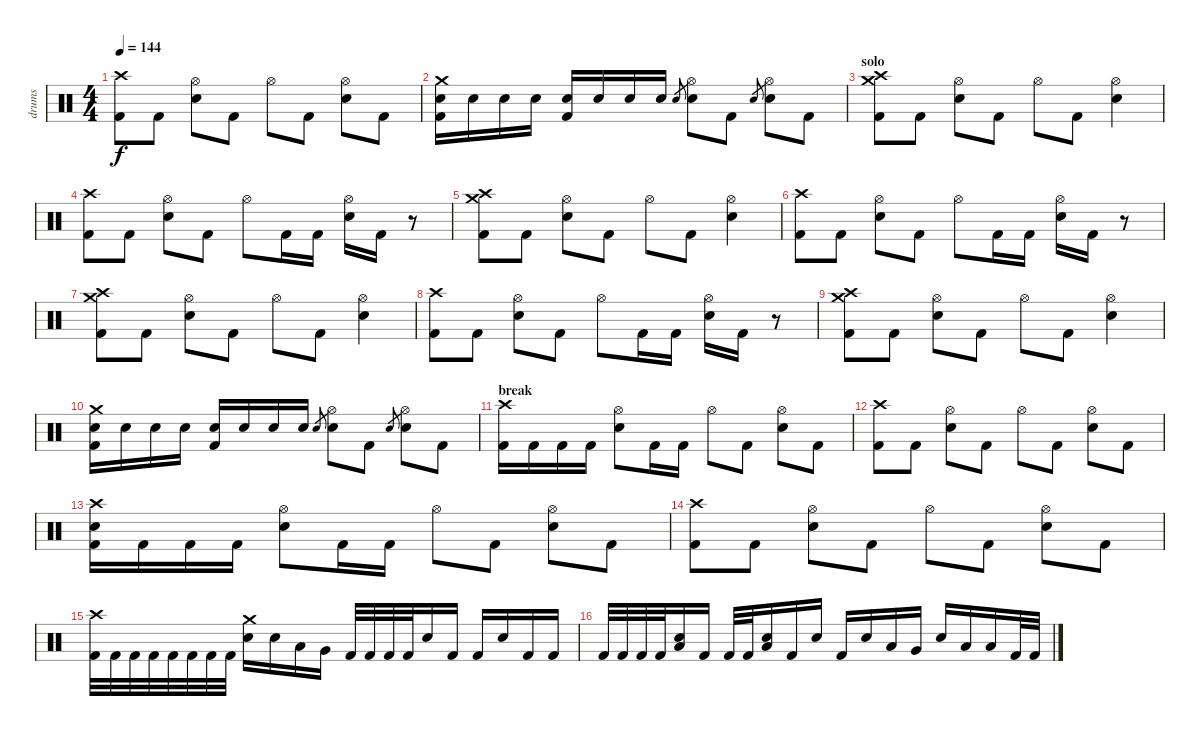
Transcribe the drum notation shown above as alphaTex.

\track ("drums" "drums") {instrument percussion}
\staff {score}
\articulation defaults
\ts (4 4)
\tempo 144
\clef neutral
\ks c
("Crash high (hit)" "Kick (hit) 2").8{dy f} "Kick (hit) 2".8 ("Hi-Hat (open)" "Electric Snare (hit)").8 "Kick (hit) 2".8 "Hi-Hat (open)".8 "Kick (hit) 2".8 ("Hi-Hat (open)" "Electric Snare (hit)").8 "Kick (hit) 2".8 |
("Crash medium (hit)" "Electric Snare (hit)" "Kick (hit) 2").16 "Electric Snare (hit)".16 "Electric Snare (hit)".16 "Electric Snare (hit)".16 ("Electric Snare (hit)" "Kick (hit) 2").16 "Electric Snare (hit)".16 "Electric Snare (hit)".16 "Electric Snare (hit)".16 "Electric Snare (hit)".8{gr} ("Hi-Hat (open)" "Electric Snare (hit)").8 "Kick (hit) 2".8 "Electric Snare (hit)".8{gr} ("Hi-Hat (open)" "Electric Snare (hit)").8 "Kick (hit) 2".8 |
\section ("" "solo")
("Crash high (hit)" "Crash medium (hit)" "Kick (hit) 2").8 "Kick (hit) 2".8 ("Hi-Hat (open)" "Electric Snare (hit)").8 "Kick (hit) 2".8 "Hi-Hat (open)".8 "Kick (hit) 2".8 ("Hi-Hat (open)" "Electric Snare (hit)").4 |
("Crash high (hit)" "Kick (hit) 2").8 "Kick (hit) 2".8 ("Hi-Hat (open)" "Electric Snare (hit)").8 "Kick (hit) 2".8 "Hi-Hat (open)".8 "Kick (hit) 2".16 "Kick (hit) 2".16 ("Hi-Hat (open)" "Electric Snare (hit)").16 "Kick (hit) 2".16 r.8 |
("Crash high (hit)" "Crash medium (hit)" "Kick (hit) 2").8 "Kick (hit) 2".8 ("Hi-Hat (open)" "Electric Snare (hit)").8 "Kick (hit) 2".8 "Hi-Hat (open)".8 "Kick (hit) 2".8 ("Hi-Hat (open)" "Electric Snare (hit)").4 |
("Crash high (hit)" "Kick (hit) 2").8 "Kick (hit) 2".8 ("Hi-Hat (open)" "Electric Snare (hit)").8 "Kick (hit) 2".8 "Hi-Hat (open)".8 "Kick (hit) 2".16 "Kick (hit) 2".16 ("Hi-Hat (open)" "Electric Snare (hit)").16 "Kick (hit) 2".16 r.8 |
("Crash high (hit)" "Crash medium (hit)" "Kick (hit) 2").8 "Kick (hit) 2".8 ("Hi-Hat (open)" "Electric Snare (hit)").8 "Kick (hit) 2".8 "Hi-Hat (open)".8 "Kick (hit) 2".8 ("Hi-Hat (open)" "Electric Snare (hit)").4 |
("Crash high (hit)" "Kick (hit) 2").8 "Kick (hit) 2".8 ("Hi-Hat (open)" "Electric Snare (hit)").8 "Kick (hit) 2".8 "Hi-Hat (open)".8 "Kick (hit) 2".16 "Kick (hit) 2".16 ("Hi-Hat (open)" "Electric Snare (hit)").16 "Kick (hit) 2".16 r.8 |
("Crash high (hit)" "Crash medium (hit)" "Kick (hit) 2").8 "Kick (hit) 2".8 ("Hi-Hat (open)" "Electric Snare (hit)").8 "Kick (hit) 2".8 "Hi-Hat (open)".8 "Kick (hit) 2".8 ("Hi-Hat (open)" "Electric Snare (hit)").4 |
("Crash medium (hit)" "Electric Snare (hit)" "Kick (hit) 2").16 "Electric Snare (hit)".16 "Electric Snare (hit)".16 "Electric Snare (hit)".16 ("Electric Snare (hit)" "Kick (hit) 2").16 "Electric Snare (hit)".16 "Electric Snare (hit)".16 "Electric Snare (hit)".16 "Electric Snare (hit)".8{gr} ("Hi-Hat (open)" "Electric Snare (hit)").8 "Kick (hit) 2".8 "Electric Snare (hit)".8{gr} ("Hi-Hat (open)" "Electric Snare (hit)").8 "Kick (hit) 2".8 |
\section ("" "break")
("Crash high (hit)" "Kick (hit) 2").16 "Kick (hit) 2".16 "Kick (hit) 2".16 "Kick (hit) 2".16 ("Hi-Hat (open)" "Electric Snare (hit)").8 "Kick (hit) 2".16 "Kick (hit) 2".16 "Hi-Hat (open)".8 "Kick (hit) 2".8 ("Hi-Hat (open)" "Electric Snare (hit)").8 "Kick (hit) 2".8 |
("Crash high (hit)" "Kick (hit) 2").8 "Kick (hit) 2".8 ("Hi-Hat (open)" "Electric Snare (hit)").8 "Kick (hit) 2".8 "Hi-Hat (open)".8 "Kick (hit) 2".8 ("Hi-Hat (open)" "Electric Snare (hit)").8 "Kick (hit) 2".8 |
("Crash high (hit)" "Electric Snare (hit)" "Kick (hit) 2").16 "Kick (hit) 2".16 "Kick (hit) 2".16 "Kick (hit) 2".16 ("Hi-Hat (open)" "Electric Snare (hit)").8 "Kick (hit) 2".16 "Kick (hit) 2".16 "Hi-Hat (open)".8 "Kick (hit) 2".8 ("Hi-Hat (open)" "Electric Snare (hit)").8 "Kick (hit) 2".8 |
("Crash high (hit)" "Kick (hit) 2").8 "Kick (hit) 2".8 ("Hi-Hat (open)" "Electric Snare (hit)").8 "Kick (hit) 2".8 "Hi-Hat (open)".8 "Kick (hit) 2".8 ("Hi-Hat (open)" "Electric Snare (hit)").8 "Kick (hit) 2".8 |
("Crash high (hit)" "Kick (hit) 2").32 "Kick (hit) 2".32 "Kick (hit) 2".32 "Kick (hit) 2".32 "Kick (hit) 2".32 "Kick (hit) 2".32 "Kick (hit) 2".32 "Kick (hit) 2".32 ("Crash medium (hit)" "Electric Snare (hit)").16 "Electric Snare (hit)".16 "Low Tom (hit)".16 "Very Low Tom (hit)".16 "Kick (hit) 2".32 "Kick (hit) 2".32 "Kick (hit) 2".32 "Kick (hit) 2".32 "Electric Snare (hit)".16 "Kick (hit) 2".16 "Kick (hit) 2".16 "Electric Snare (hit)".16 "Kick (hit) 2".16 "Kick (hit) 2".16 |
"Kick (hit) 2".32 "Kick (hit) 2".32 "Kick (hit) 2".32 "Kick (hit) 2".32 ("Low Floor Tom (hit)" "Electric Snare (hit)").16 "Kick (hit) 2".16 "Kick (hit) 2".32 "Kick (hit) 2".32 ("Low Floor Tom (hit)" "Electric Snare (hit)").16 "Kick (hit) 2".16 "Electric Snare (hit)".16 "Kick (hit) 2".16 "Electric Snare (hit)".16 "Low Tom (hit)".16 "Very Low Tom (hit)".16 "Electric Snare (hit)".16 "Low Tom (hit)".16 "Low Floor Tom (hit)".16 "Kick (hit) 2".32 "Kick (hit) 2".32
